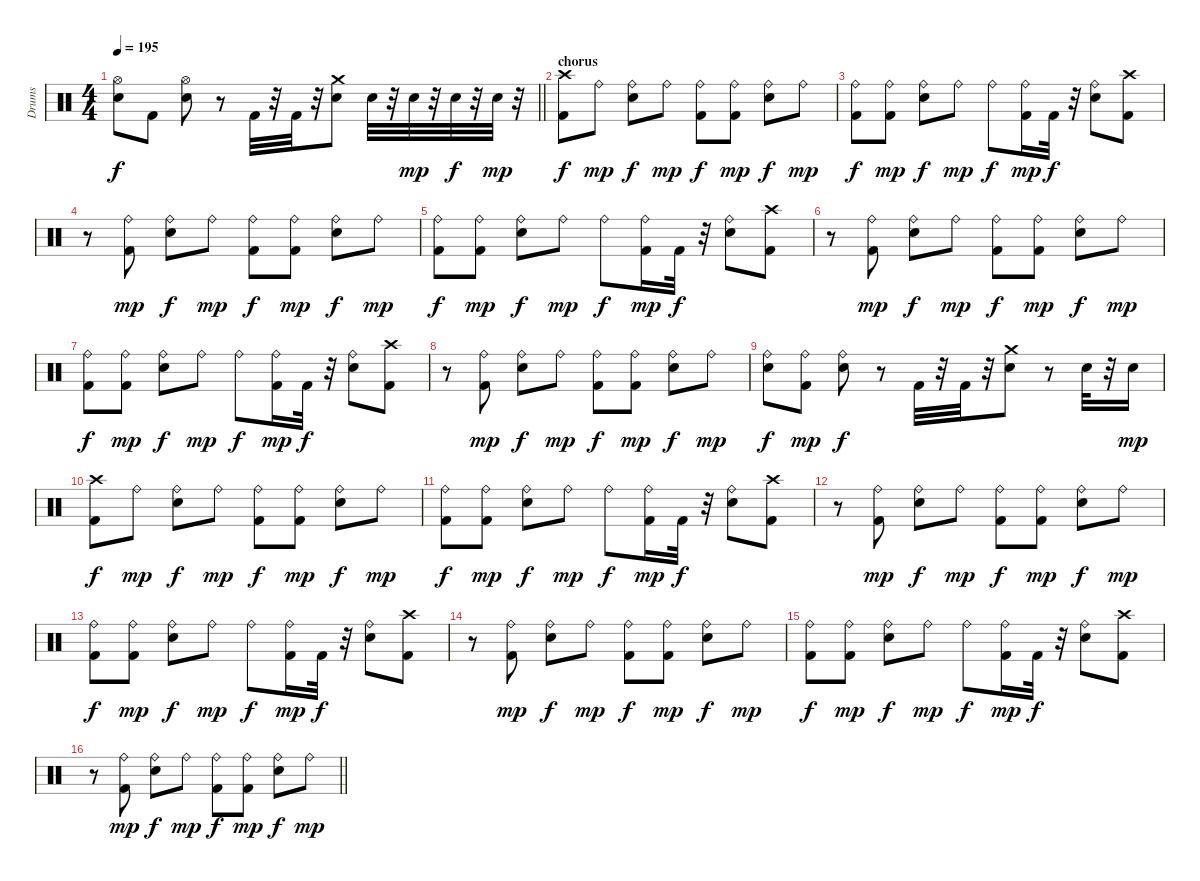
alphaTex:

\track ("Drums" "Drums") {instrument percussion}
\staff {score}
\articulation defaults
\ts (4 4)
\tempo 195
\clef neutral
\barLineRight lightlight
\ks c
("Hi-Hat (open)" "Electric Snare (hit)").8{dy f} "Kick (hit) 2".8 ("Electric Snare (hit)" "Hi-Hat (open)").8 r.8 "Kick (hit) 2".32 r.32 "Kick (hit) 2".32 r.32 ("Electric Snare (hit)" "Crash medium (hit)").8 "Electric Snare (hit)".32 r.32 "Electric Snare (hit)".32{dy mp} r.32 "Electric Snare (hit)".32{dy f} r.32 "Electric Snare (hit)".32{dy mp} r.32 |
\section ("" "chorus")
("Kick (hit) 2" "Crash high (hit)").8{dy f} "Ride (bell)".8{dy mp} ("Electric Snare (hit)" "Ride (bell)").8{dy f} "Ride (bell)".8{dy mp} ("Kick (hit) 2" "Ride (bell)").8{dy f} ("Kick (hit) 2" "Ride (bell)").8{dy mp} ("Electric Snare (hit)" "Ride (bell)").8{dy f} "Ride (bell)".8{dy mp} |
("Kick (hit) 2" "Ride (bell)").8{dy f} ("Kick (hit) 2" "Ride (bell)").8{dy mp} ("Electric Snare (hit)" "Ride (bell)").8{dy f} "Ride (bell)".8{dy mp} "Ride (bell)".8{dy f} ("Kick (hit) 2" "Ride (bell)").16{dy mp} "Kick (hit) 2".32{dy f} r.32 ("Electric Snare (hit)" "Ride (bell)").8 ("Kick (hit) 2" "Crash high (hit)").8 |
r.8 ("Kick (hit) 2" "Ride (bell)").8{dy mp} ("Electric Snare (hit)" "Ride (bell)").8{dy f} "Ride (bell)".8{dy mp} ("Kick (hit) 2" "Ride (bell)").8{dy f} ("Kick (hit) 2" "Ride (bell)").8{dy mp} ("Electric Snare (hit)" "Ride (bell)").8{dy f} "Ride (bell)".8{dy mp} |
("Kick (hit) 2" "Ride (bell)").8{dy f} ("Kick (hit) 2" "Ride (bell)").8{dy mp} ("Electric Snare (hit)" "Ride (bell)").8{dy f} "Ride (bell)".8{dy mp} "Ride (bell)".8{dy f} ("Kick (hit) 2" "Ride (bell)").16{dy mp} "Kick (hit) 2".32{dy f} r.32 ("Electric Snare (hit)" "Ride (bell)").8 ("Kick (hit) 2" "Crash high (hit)").8 |
r.8 ("Kick (hit) 2" "Ride (bell)").8{dy mp} ("Electric Snare (hit)" "Ride (bell)").8{dy f} "Ride (bell)".8{dy mp} ("Kick (hit) 2" "Ride (bell)").8{dy f} ("Kick (hit) 2" "Ride (bell)").8{dy mp} ("Electric Snare (hit)" "Ride (bell)").8{dy f} "Ride (bell)".8{dy mp} |
("Kick (hit) 2" "Ride (bell)").8{dy f} ("Kick (hit) 2" "Ride (bell)").8{dy mp} ("Electric Snare (hit)" "Ride (bell)").8{dy f} "Ride (bell)".8{dy mp} "Ride (bell)".8{dy f} ("Kick (hit) 2" "Ride (bell)").16{dy mp} "Kick (hit) 2".32{dy f} r.32 ("Electric Snare (hit)" "Ride (bell)").8 ("Kick (hit) 2" "Crash high (hit)").8 |
r.8 ("Kick (hit) 2" "Ride (bell)").8{dy mp} ("Electric Snare (hit)" "Ride (bell)").8{dy f} "Ride (bell)".8{dy mp} ("Kick (hit) 2" "Ride (bell)").8{dy f} ("Kick (hit) 2" "Ride (bell)").8{dy mp} ("Electric Snare (hit)" "Ride (bell)").8{dy f} "Ride (bell)".8{dy mp} |
("Electric Snare (hit)" "Ride (bell)").8{dy f} ("Kick (hit) 2" "Ride (bell)").8{dy mp} ("Electric Snare (hit)" "Ride (bell)").8{dy f} r.8 "Kick (hit) 2".32 r.32 "Kick (hit) 2".32 r.32 ("Electric Snare (hit)" "Crash medium (hit)").8 r.8 "Electric Snare (hit)".32 r.32 "Electric Snare (hit)".16{dy mp} |
("Kick (hit) 2" "Crash high (hit)").8{dy f} "Ride (bell)".8{dy mp} ("Electric Snare (hit)" "Ride (bell)").8{dy f} "Ride (bell)".8{dy mp} ("Kick (hit) 2" "Ride (bell)").8{dy f} ("Kick (hit) 2" "Ride (bell)").8{dy mp} ("Electric Snare (hit)" "Ride (bell)").8{dy f} "Ride (bell)".8{dy mp} |
("Kick (hit) 2" "Ride (bell)").8{dy f} ("Kick (hit) 2" "Ride (bell)").8{dy mp} ("Electric Snare (hit)" "Ride (bell)").8{dy f} "Ride (bell)".8{dy mp} "Ride (bell)".8{dy f} ("Kick (hit) 2" "Ride (bell)").16{dy mp} "Kick (hit) 2".32{dy f} r.32 ("Electric Snare (hit)" "Ride (bell)").8 ("Kick (hit) 2" "Crash high (hit)").8 |
r.8 ("Kick (hit) 2" "Ride (bell)").8{dy mp} ("Electric Snare (hit)" "Ride (bell)").8{dy f} "Ride (bell)".8{dy mp} ("Kick (hit) 2" "Ride (bell)").8{dy f} ("Kick (hit) 2" "Ride (bell)").8{dy mp} ("Electric Snare (hit)" "Ride (bell)").8{dy f} "Ride (bell)".8{dy mp} |
("Kick (hit) 2" "Ride (bell)").8{dy f} ("Kick (hit) 2" "Ride (bell)").8{dy mp} ("Electric Snare (hit)" "Ride (bell)").8{dy f} "Ride (bell)".8{dy mp} "Ride (bell)".8{dy f} ("Kick (hit) 2" "Ride (bell)").16{dy mp} "Kick (hit) 2".32{dy f} r.32 ("Electric Snare (hit)" "Ride (bell)").8 ("Kick (hit) 2" "Crash high (hit)").8 |
r.8 ("Kick (hit) 2" "Ride (bell)").8{dy mp} ("Electric Snare (hit)" "Ride (bell)").8{dy f} "Ride (bell)".8{dy mp} ("Kick (hit) 2" "Ride (bell)").8{dy f} ("Kick (hit) 2" "Ride (bell)").8{dy mp} ("Electric Snare (hit)" "Ride (bell)").8{dy f} "Ride (bell)".8{dy mp} |
("Kick (hit) 2" "Ride (bell)").8{dy f} ("Kick (hit) 2" "Ride (bell)").8{dy mp} ("Electric Snare (hit)" "Ride (bell)").8{dy f} "Ride (bell)".8{dy mp} "Ride (bell)".8{dy f} ("Kick (hit) 2" "Ride (bell)").16{dy mp} "Kick (hit) 2".32{dy f} r.32 ("Electric Snare (hit)" "Ride (bell)").8 ("Kick (hit) 2" "Crash high (hit)").8 |
\barLineRight lightlight
r.8 ("Kick (hit) 2" "Ride (bell)").8{dy mp} ("Electric Snare (hit)" "Ride (bell)").8{dy f} "Ride (bell)".8{dy mp} ("Kick (hit) 2" "Ride (bell)").8{dy f} ("Kick (hit) 2" "Ride (bell)").8{dy mp} ("Electric Snare (hit)" "Ride (bell)").8{dy f} "Ride (bell)".8{dy mp}
